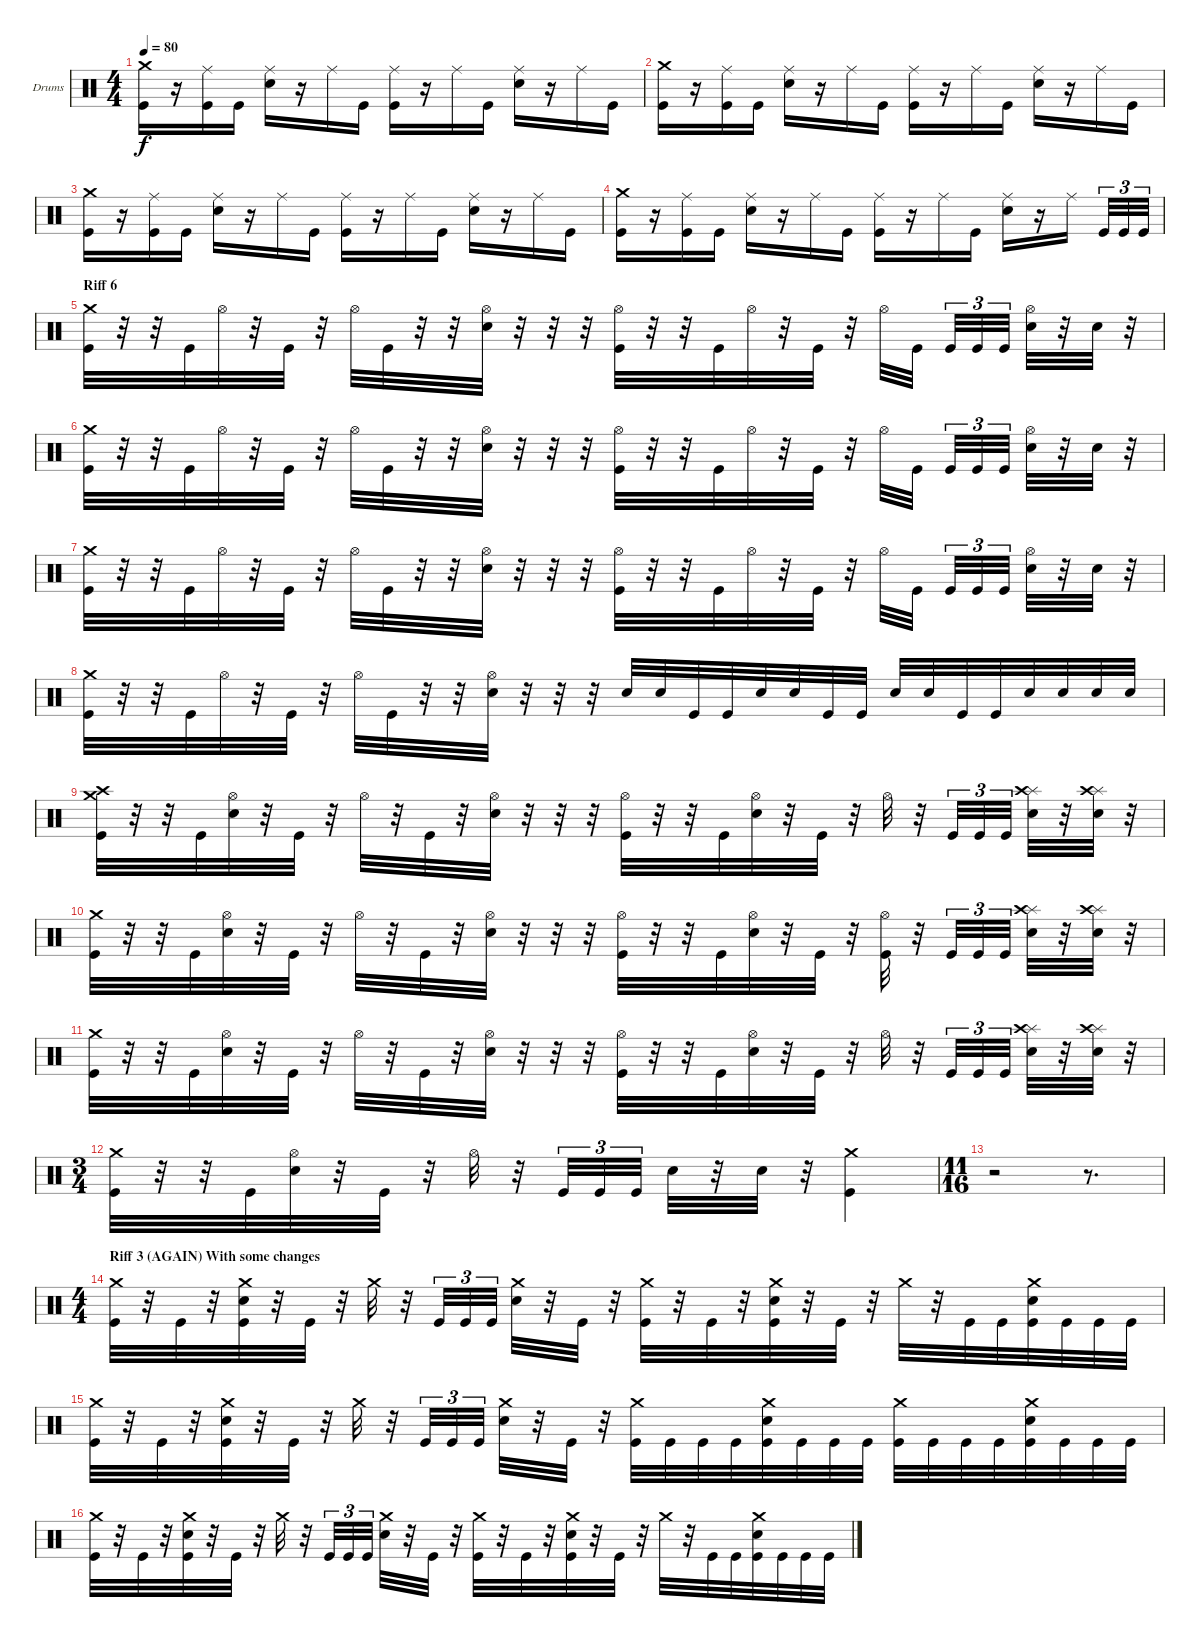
\bracketExtendMode groupsimilarinstruments
\firstSystemTrackNameOrientation horizontal
\otherSystemsTrackNameOrientation horizontal
\track ("Drumkit" "Drums") {instrument percussion}
\staff {score}
\articulation defaults
\ts (4 4)
\tempo 80
\clef neutral
\ks c
("Crash medium (hit)" "Kick (hit)").16{dy f} r.16 ("Ride (middle)" "Kick (hit)").16 "Kick (hit)".16 ("Ride (middle)" "Snare (hit) 2").16 r.16 "Ride (middle)".16 "Kick (hit)".16 ("Ride (middle)" "Kick (hit)").16 r.16 "Ride (middle)".16 "Kick (hit)".16 ("Ride (middle)" "Snare (hit) 2").16 r.16 "Ride (middle)".16 "Kick (hit)".16 |
("Crash medium (hit)" "Kick (hit)").16 r.16 ("Ride (middle)" "Kick (hit)").16 "Kick (hit)".16 ("Ride (middle)" "Snare (hit) 2").16 r.16 "Ride (middle)".16 "Kick (hit)".16 ("Ride (middle)" "Kick (hit)").16 r.16 "Ride (middle)".16 "Kick (hit)".16 ("Ride (middle)" "Snare (hit) 2").16 r.16 "Ride (middle)".16 "Kick (hit)".16 |
("Crash medium (hit)" "Kick (hit)").16 r.16 ("Ride (middle)" "Kick (hit)").16 "Kick (hit)".16 ("Ride (middle)" "Snare (hit) 2").16 r.16 "Ride (middle)".16 "Kick (hit)".16 ("Ride (middle)" "Kick (hit)").16 r.16 "Ride (middle)".16 "Kick (hit)".16 ("Ride (middle)" "Snare (hit) 2").16 r.16 "Ride (middle)".16 "Kick (hit)".16 |
("Crash medium (hit)" "Kick (hit)").16 r.16 ("Ride (middle)" "Kick (hit)").16 "Kick (hit)".16 ("Ride (middle)" "Snare (hit) 2").16 r.16 "Ride (middle)".16 "Kick (hit)".16 ("Ride (middle)" "Kick (hit)").16 r.16 "Ride (middle)".16 "Kick (hit)".16 ("Ride (middle)" "Snare (hit) 2").16 r.16 "Ride (middle)".16 "Kick (hit)".32{tu (3 2)} "Kick (hit)".32{tu (3 2)} "Kick (hit)".32{tu (3 2)} |
\section ("" "Riff 6")
("Crash medium (hit)" "Kick (hit)").32 r.32 r.32 "Kick (hit)".32 "Hi-Hat (open)".32 r.32 "Kick (hit)".32 r.32 "Hi-Hat (open)".32 "Kick (hit)".32 r.32 r.32 ("Hi-Hat (open)" "Snare (hit) 2").32 r.32 r.32 r.32 ("Hi-Hat (open)" "Kick (hit)").32 r.32 r.32 "Kick (hit)".32 "Hi-Hat (open)".32 r.32 "Kick (hit)".32 r.32 "Hi-Hat (open)".32 "Kick (hit)".32 "Kick (hit)".32{tu (3 2)} "Kick (hit)".32{tu (3 2)} "Kick (hit)".32{tu (3 2)} ("Hi-Hat (open)" "Snare (hit) 2").32 r.32 "Snare (hit) 2".32 r.32 |
("Crash medium (hit)" "Kick (hit)").32 r.32 r.32 "Kick (hit)".32 "Hi-Hat (open)".32 r.32 "Kick (hit)".32 r.32 "Hi-Hat (open)".32 "Kick (hit)".32 r.32 r.32 ("Hi-Hat (open)" "Snare (hit) 2").32 r.32 r.32 r.32 ("Hi-Hat (open)" "Kick (hit)").32 r.32 r.32 "Kick (hit)".32 "Hi-Hat (open)".32 r.32 "Kick (hit)".32 r.32 "Hi-Hat (open)".32 "Kick (hit)".32 "Kick (hit)".32{tu (3 2)} "Kick (hit)".32{tu (3 2)} "Kick (hit)".32{tu (3 2)} ("Hi-Hat (open)" "Snare (hit) 2").32 r.32 "Snare (hit) 2".32 r.32 |
("Crash medium (hit)" "Kick (hit)").32 r.32 r.32 "Kick (hit)".32 "Hi-Hat (open)".32 r.32 "Kick (hit)".32 r.32 "Hi-Hat (open)".32 "Kick (hit)".32 r.32 r.32 ("Hi-Hat (open)" "Snare (hit) 2").32 r.32 r.32 r.32 ("Hi-Hat (open)" "Kick (hit)").32 r.32 r.32 "Kick (hit)".32 "Hi-Hat (open)".32 r.32 "Kick (hit)".32 r.32 "Hi-Hat (open)".32 "Kick (hit)".32 "Kick (hit)".32{tu (3 2)} "Kick (hit)".32{tu (3 2)} "Kick (hit)".32{tu (3 2)} ("Hi-Hat (open)" "Snare (hit) 2").32 r.32 "Snare (hit) 2".32 r.32 |
("Crash medium (hit)" "Kick (hit)").32 r.32 r.32 "Kick (hit)".32 "Hi-Hat (open)".32 r.32 "Kick (hit)".32 r.32 "Hi-Hat (open)".32 "Kick (hit)".32 r.32 r.32 ("Hi-Hat (open)" "Snare (hit) 2").32 r.32 r.32 r.32 "Snare (hit) 2".32 "Snare (hit) 2".32 "Kick (hit)".32 "Kick (hit)".32 "Snare (hit) 2".32 "Snare (hit) 2".32 "Kick (hit)".32 "Kick (hit)".32 "Snare (hit) 2".32 "Snare (hit) 2".32 "Kick (hit)".32 "Kick (hit)".32 "Snare (hit) 2".32 "Snare (hit) 2".32 "Snare (hit) 2".32 "Snare (hit) 2".32 |
("Crash medium (hit)" "Crash high (hit)" "Kick (hit)").32 r.32 r.32 "Kick (hit)".32 ("Hi-Hat (open)" "Snare (hit) 2").32 r.32 "Kick (hit)".32 r.32 "Hi-Hat (open)".32 r.32 "Kick (hit)".32 r.32 ("Hi-Hat (open)" "Snare (hit) 2").32 r.32 r.32 r.32 ("Hi-Hat (open)" "Kick (hit)").32 r.32 r.32 "Kick (hit)".32 ("Hi-Hat (open)" "Snare (hit) 2").32 r.32 "Kick (hit)".32 r.32 "Hi-Hat (open)".32 r.32 "Kick (hit)".32{tu (3 2)} "Kick (hit)".32{tu (3 2)} "Kick (hit)".32{tu (3 2)} ("Splash (hit)" "Crash high (hit)" "Snare (hit) 2").32 r.32 ("Splash (hit)" "Crash high (hit)" "Snare (hit) 2").32 r.32 |
("Crash medium (hit)" "Kick (hit)").32 r.32 r.32 "Kick (hit)".32 ("Hi-Hat (open)" "Snare (hit) 2").32 r.32 "Kick (hit)".32 r.32 "Hi-Hat (open)".32 r.32 "Kick (hit)".32 r.32 ("Hi-Hat (open)" "Snare (hit) 2").32 r.32 r.32 r.32 ("Hi-Hat (open)" "Kick (hit)").32 r.32 r.32 "Kick (hit)".32 ("Hi-Hat (open)" "Snare (hit) 2").32 r.32 "Kick (hit)".32 r.32 ("Hi-Hat (open)" "Kick (hit)").32 r.32 "Kick (hit)".32{tu (3 2)} "Kick (hit)".32{tu (3 2)} "Kick (hit)".32{tu (3 2)} ("Splash (hit)" "Crash high (hit)" "Snare (hit) 2").32 r.32 ("Splash (hit)" "Crash high (hit)" "Snare (hit) 2").32 r.32 |
("Crash medium (hit)" "Kick (hit)").32 r.32 r.32 "Kick (hit)".32 ("Hi-Hat (open)" "Snare (hit) 2").32 r.32 "Kick (hit)".32 r.32 "Hi-Hat (open)".32 r.32 "Kick (hit)".32 r.32 ("Hi-Hat (open)" "Snare (hit) 2").32 r.32 r.32 r.32 ("Hi-Hat (open)" "Kick (hit)").32 r.32 r.32 "Kick (hit)".32 ("Hi-Hat (open)" "Snare (hit) 2").32 r.32 "Kick (hit)".32 r.32 "Hi-Hat (open)".32 r.32 "Kick (hit)".32{tu (3 2)} "Kick (hit)".32{tu (3 2)} "Kick (hit)".32{tu (3 2)} ("Splash (hit)" "Crash high (hit)" "Snare (hit) 2").32 r.32 ("Splash (hit)" "Crash high (hit)" "Snare (hit) 2").32 r.32 |
\ts (3 4)
("Crash medium (hit)" "Kick (hit)").32 r.32 r.32 "Kick (hit)".32 ("Hi-Hat (open)" "Snare (hit) 2").32 r.32 "Kick (hit)".32 r.32 "Hi-Hat (open)".32 r.32 "Kick (hit)".32{tu (3 2)} "Kick (hit)".32{tu (3 2)} "Kick (hit)".32{tu (3 2)} "Snare (hit) 2".32 r.32 "Snare (hit) 2".32 r.32 ("Crash medium (hit)" "Kick (hit)").4 |
\ts (11 16)
r.2 r.8{d} |
\ts (4 4)
\section ("" "Riff 3 (AGAIN) With some changes")
("Crash medium (hit)" "Kick (hit)").32 r.32 "Kick (hit)".32 r.32 ("Crash medium (hit)" "Snare (hit) 2" "Kick (hit)").32 r.32 "Kick (hit)".32 r.32 "Crash medium (hit)".32 r.32 "Kick (hit)".32{tu (3 2)} "Kick (hit)".32{tu (3 2)} "Kick (hit)".32{tu (3 2)} ("Crash medium (hit)" "Snare (hit) 2").32 r.32 "Kick (hit)".32 r.32 ("Crash medium (hit)" "Kick (hit)").32 r.32 "Kick (hit)".32 r.32 ("Crash medium (hit)" "Snare (hit) 2" "Kick (hit)").32 r.32 "Kick (hit)".32 r.32 "Crash medium (hit)".32 r.32 "Kick (hit)".32 "Kick (hit)".32 ("Crash medium (hit)" "Snare (hit) 2" "Kick (hit)").32 "Kick (hit)".32 "Kick (hit)".32 "Kick (hit)".32 |
("Crash medium (hit)" "Kick (hit)").32 r.32 "Kick (hit)".32 r.32 ("Crash medium (hit)" "Snare (hit) 2" "Kick (hit)").32 r.32 "Kick (hit)".32 r.32 "Crash medium (hit)".32 r.32 "Kick (hit)".32{tu (3 2)} "Kick (hit)".32{tu (3 2)} "Kick (hit)".32{tu (3 2)} ("Crash medium (hit)" "Snare (hit) 2").32 r.32 "Kick (hit)".32 r.32 ("Crash medium (hit)" "Kick (hit)").32 "Kick (hit)".32 "Kick (hit)".32 "Kick (hit)".32 ("Crash medium (hit)" "Snare (hit) 2" "Kick (hit)").32 "Kick (hit)".32 "Kick (hit)".32 "Kick (hit)".32 ("Crash medium (hit)" "Kick (hit)").32 "Kick (hit)".32 "Kick (hit)".32 "Kick (hit)".32 ("Crash medium (hit)" "Snare (hit) 2" "Kick (hit)").32 "Kick (hit)".32 "Kick (hit)".32 "Kick (hit)".32 |
("Crash medium (hit)" "Kick (hit)").32 r.32 "Kick (hit)".32 r.32 ("Crash medium (hit)" "Snare (hit) 2" "Kick (hit)").32 r.32 "Kick (hit)".32 r.32 "Crash medium (hit)".32 r.32 "Kick (hit)".32{tu (3 2)} "Kick (hit)".32{tu (3 2)} "Kick (hit)".32{tu (3 2)} ("Crash medium (hit)" "Snare (hit) 2").32 r.32 "Kick (hit)".32 r.32 ("Crash medium (hit)" "Kick (hit)").32 r.32 "Kick (hit)".32 r.32 ("Crash medium (hit)" "Snare (hit) 2" "Kick (hit)").32 r.32 "Kick (hit)".32 r.32 "Crash medium (hit)".32 r.32 "Kick (hit)".32 "Kick (hit)".32 ("Crash medium (hit)" "Snare (hit) 2" "Kick (hit)").32 "Kick (hit)".32 "Kick (hit)".32 "Kick (hit)".32
